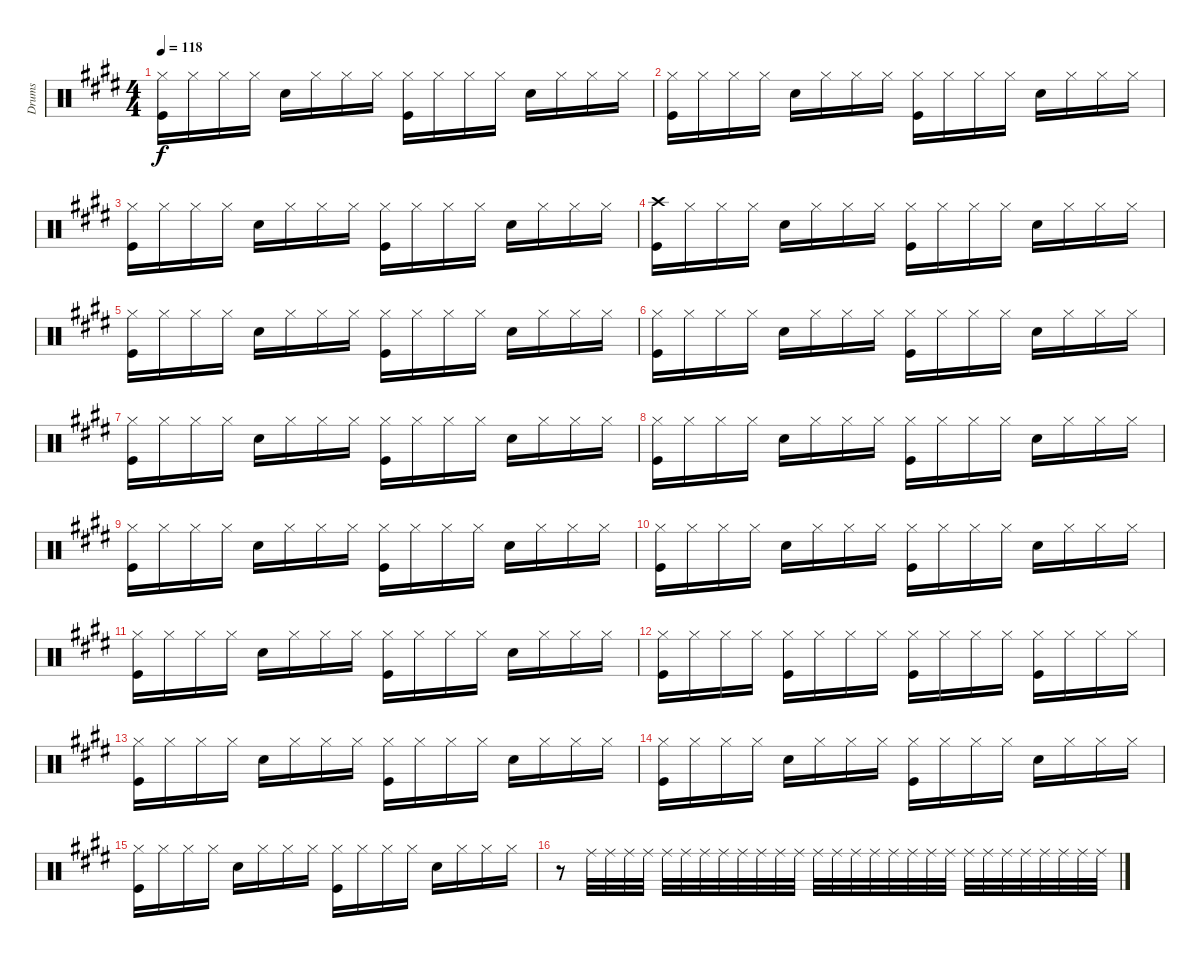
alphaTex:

\track ("Drums" "Drums") {instrument percussion}
\staff {score}
\articulation defaults
\ts (4 4)
\tempo 118
\clef neutral
\ks e
("Kick (hit)" "Hi-Hat (closed)").16{dy f} "Hi-Hat (closed)".16 "Hi-Hat (closed)".16 "Hi-Hat (closed)".16 "Snare (hit) 2".16 "Hi-Hat (closed)".16 "Hi-Hat (closed)".16 "Hi-Hat (closed)".16 ("Hi-Hat (closed)" "Kick (hit)").16 "Hi-Hat (closed)".16 "Hi-Hat (closed)".16 "Hi-Hat (closed)".16 "Snare (hit) 2".16 "Hi-Hat (closed)".16 "Hi-Hat (closed)".16 "Hi-Hat (closed)".16 |
("Kick (hit)" "Hi-Hat (closed)").16 "Hi-Hat (closed)".16 "Hi-Hat (closed)".16 "Hi-Hat (closed)".16 "Snare (hit) 2".16 "Hi-Hat (closed)".16 "Hi-Hat (closed)".16 "Hi-Hat (closed)".16 ("Hi-Hat (closed)" "Kick (hit)").16 "Hi-Hat (closed)".16 "Hi-Hat (closed)".16 "Hi-Hat (closed)".16 "Snare (hit) 2".16 "Hi-Hat (closed)".16 "Hi-Hat (closed)".16 "Hi-Hat (closed)".16 |
("Kick (hit)" "Hi-Hat (closed)").16 "Hi-Hat (closed)".16 "Hi-Hat (closed)".16 "Hi-Hat (closed)".16 "Snare (hit) 2".16 "Hi-Hat (closed)".16 "Hi-Hat (closed)".16 "Hi-Hat (closed)".16 ("Hi-Hat (closed)" "Kick (hit)").16 "Hi-Hat (closed)".16 "Hi-Hat (closed)".16 "Hi-Hat (closed)".16 "Snare (hit) 2".16 "Hi-Hat (closed)".16 "Hi-Hat (closed)".16 "Hi-Hat (closed)".16 |
("Crash high (hit)" "Kick (hit)").16 "Hi-Hat (closed)".16 "Hi-Hat (closed)".16 "Hi-Hat (closed)".16 "Snare (hit) 2".16 "Hi-Hat (closed)".16 "Hi-Hat (closed)".16 "Hi-Hat (closed)".16 ("Hi-Hat (closed)" "Kick (hit)").16 "Hi-Hat (closed)".16 "Hi-Hat (closed)".16 "Hi-Hat (closed)".16 "Snare (hit) 2".16 "Hi-Hat (closed)".16 "Hi-Hat (closed)".16 "Hi-Hat (closed)".16 |
("Kick (hit)" "Hi-Hat (closed)").16 "Hi-Hat (closed)".16 "Hi-Hat (closed)".16 "Hi-Hat (closed)".16 "Snare (hit) 2".16 "Hi-Hat (closed)".16 "Hi-Hat (closed)".16 "Hi-Hat (closed)".16 ("Hi-Hat (closed)" "Kick (hit)").16 "Hi-Hat (closed)".16 "Hi-Hat (closed)".16 "Hi-Hat (closed)".16 "Snare (hit) 2".16 "Hi-Hat (closed)".16 "Hi-Hat (closed)".16 "Hi-Hat (closed)".16 |
("Kick (hit)" "Hi-Hat (closed)").16 "Hi-Hat (closed)".16 "Hi-Hat (closed)".16 "Hi-Hat (closed)".16 "Snare (hit) 2".16 "Hi-Hat (closed)".16 "Hi-Hat (closed)".16 "Hi-Hat (closed)".16 ("Hi-Hat (closed)" "Kick (hit)").16 "Hi-Hat (closed)".16 "Hi-Hat (closed)".16 "Hi-Hat (closed)".16 "Snare (hit) 2".16 "Hi-Hat (closed)".16 "Hi-Hat (closed)".16 "Hi-Hat (closed)".16 |
("Kick (hit)" "Hi-Hat (closed)").16 "Hi-Hat (closed)".16 "Hi-Hat (closed)".16 "Hi-Hat (closed)".16 "Snare (hit) 2".16 "Hi-Hat (closed)".16 "Hi-Hat (closed)".16 "Hi-Hat (closed)".16 ("Hi-Hat (closed)" "Kick (hit)").16 "Hi-Hat (closed)".16 "Hi-Hat (closed)".16 "Hi-Hat (closed)".16 "Snare (hit) 2".16 "Hi-Hat (closed)".16 "Hi-Hat (closed)".16 "Hi-Hat (closed)".16 |
("Kick (hit)" "Hi-Hat (closed)").16 "Hi-Hat (closed)".16 "Hi-Hat (closed)".16 "Hi-Hat (closed)".16 "Snare (hit) 2".16 "Hi-Hat (closed)".16 "Hi-Hat (closed)".16 "Hi-Hat (closed)".16 ("Hi-Hat (closed)" "Kick (hit)").16 "Hi-Hat (closed)".16 "Hi-Hat (closed)".16 "Hi-Hat (closed)".16 "Snare (hit) 2".16 "Hi-Hat (closed)".16 "Hi-Hat (closed)".16 "Hi-Hat (closed)".16 |
("Kick (hit)" "Hi-Hat (closed)").16 "Hi-Hat (closed)".16 "Hi-Hat (closed)".16 "Hi-Hat (closed)".16 "Snare (hit) 2".16 "Hi-Hat (closed)".16 "Hi-Hat (closed)".16 "Hi-Hat (closed)".16 ("Hi-Hat (closed)" "Kick (hit)").16 "Hi-Hat (closed)".16 "Hi-Hat (closed)".16 "Hi-Hat (closed)".16 "Snare (hit) 2".16 "Hi-Hat (closed)".16 "Hi-Hat (closed)".16 "Hi-Hat (closed)".16 |
("Kick (hit)" "Hi-Hat (closed)").16 "Hi-Hat (closed)".16 "Hi-Hat (closed)".16 "Hi-Hat (closed)".16 "Snare (hit) 2".16 "Hi-Hat (closed)".16 "Hi-Hat (closed)".16 "Hi-Hat (closed)".16 ("Hi-Hat (closed)" "Kick (hit)").16 "Hi-Hat (closed)".16 "Hi-Hat (closed)".16 "Hi-Hat (closed)".16 "Snare (hit) 2".16 "Hi-Hat (closed)".16 "Hi-Hat (closed)".16 "Hi-Hat (closed)".16 |
("Kick (hit)" "Hi-Hat (closed)").16 "Hi-Hat (closed)".16 "Hi-Hat (closed)".16 "Hi-Hat (closed)".16 "Snare (hit) 2".16 "Hi-Hat (closed)".16 "Hi-Hat (closed)".16 "Hi-Hat (closed)".16 ("Hi-Hat (closed)" "Kick (hit)").16 "Hi-Hat (closed)".16 "Hi-Hat (closed)".16 "Hi-Hat (closed)".16 "Snare (hit) 2".16 "Hi-Hat (closed)".16 "Hi-Hat (closed)".16 "Hi-Hat (closed)".16 |
("Hi-Hat (closed)" "Kick (hit)").16 "Hi-Hat (closed)".16 "Hi-Hat (closed)".16 "Hi-Hat (closed)".16 ("Hi-Hat (closed)" "Kick (hit)").16 "Hi-Hat (closed)".16 "Hi-Hat (closed)".16 "Hi-Hat (closed)".16 ("Hi-Hat (closed)" "Kick (hit)").16 "Hi-Hat (closed)".16 "Hi-Hat (closed)".16 "Hi-Hat (closed)".16 ("Hi-Hat (closed)" "Kick (hit)").16 "Hi-Hat (closed)".16 "Hi-Hat (closed)".16 "Hi-Hat (closed)".16 |
("Kick (hit)" "Hi-Hat (closed)").16 "Hi-Hat (closed)".16 "Hi-Hat (closed)".16 "Hi-Hat (closed)".16 "Snare (hit) 2".16 "Hi-Hat (closed)".16 "Hi-Hat (closed)".16 "Hi-Hat (closed)".16 ("Hi-Hat (closed)" "Kick (hit)").16 "Hi-Hat (closed)".16 "Hi-Hat (closed)".16 "Hi-Hat (closed)".16 "Snare (hit) 2".16 "Hi-Hat (closed)".16 "Hi-Hat (closed)".16 "Hi-Hat (closed)".16 |
("Kick (hit)" "Hi-Hat (closed)").16 "Hi-Hat (closed)".16 "Hi-Hat (closed)".16 "Hi-Hat (closed)".16 "Snare (hit) 2".16 "Hi-Hat (closed)".16 "Hi-Hat (closed)".16 "Hi-Hat (closed)".16 ("Hi-Hat (closed)" "Kick (hit)").16 "Hi-Hat (closed)".16 "Hi-Hat (closed)".16 "Hi-Hat (closed)".16 "Snare (hit) 2".16 "Hi-Hat (closed)".16 "Hi-Hat (closed)".16 "Hi-Hat (closed)".16 |
("Kick (hit)" "Hi-Hat (closed)").16 "Hi-Hat (closed)".16 "Hi-Hat (closed)".16 "Hi-Hat (closed)".16 "Snare (hit) 2".16 "Hi-Hat (closed)".16 "Hi-Hat (closed)".16 "Hi-Hat (closed)".16 ("Hi-Hat (closed)" "Kick (hit)").16 "Hi-Hat (closed)".16 "Hi-Hat (closed)".16 "Hi-Hat (closed)".16 "Snare (hit) 2".16 "Hi-Hat (closed)".16 "Hi-Hat (closed)".16 "Hi-Hat (closed)".16 |
r.8 "Ride (middle)".32 "Ride (middle)".32 "Ride (middle)".32 "Ride (middle)".32 "Ride (middle)".32 "Ride (middle)".32 "Ride (middle)".32 "Ride (middle)".32 "Ride (middle)".32 "Ride (middle)".32 "Ride (middle)".32 "Ride (middle)".32 "Ride (middle)".32 "Ride (middle)".32 "Ride (middle)".32 "Ride (middle)".32 "Ride (middle)".32 "Ride (middle)".32 "Ride (middle)".32 "Ride (middle)".32 "Ride (middle)".32 "Ride (middle)".32 "Ride (middle)".32 "Ride (middle)".32 "Ride (middle)".32 "Ride (middle)".32 "Ride (middle)".32 "Ride (middle)".32
